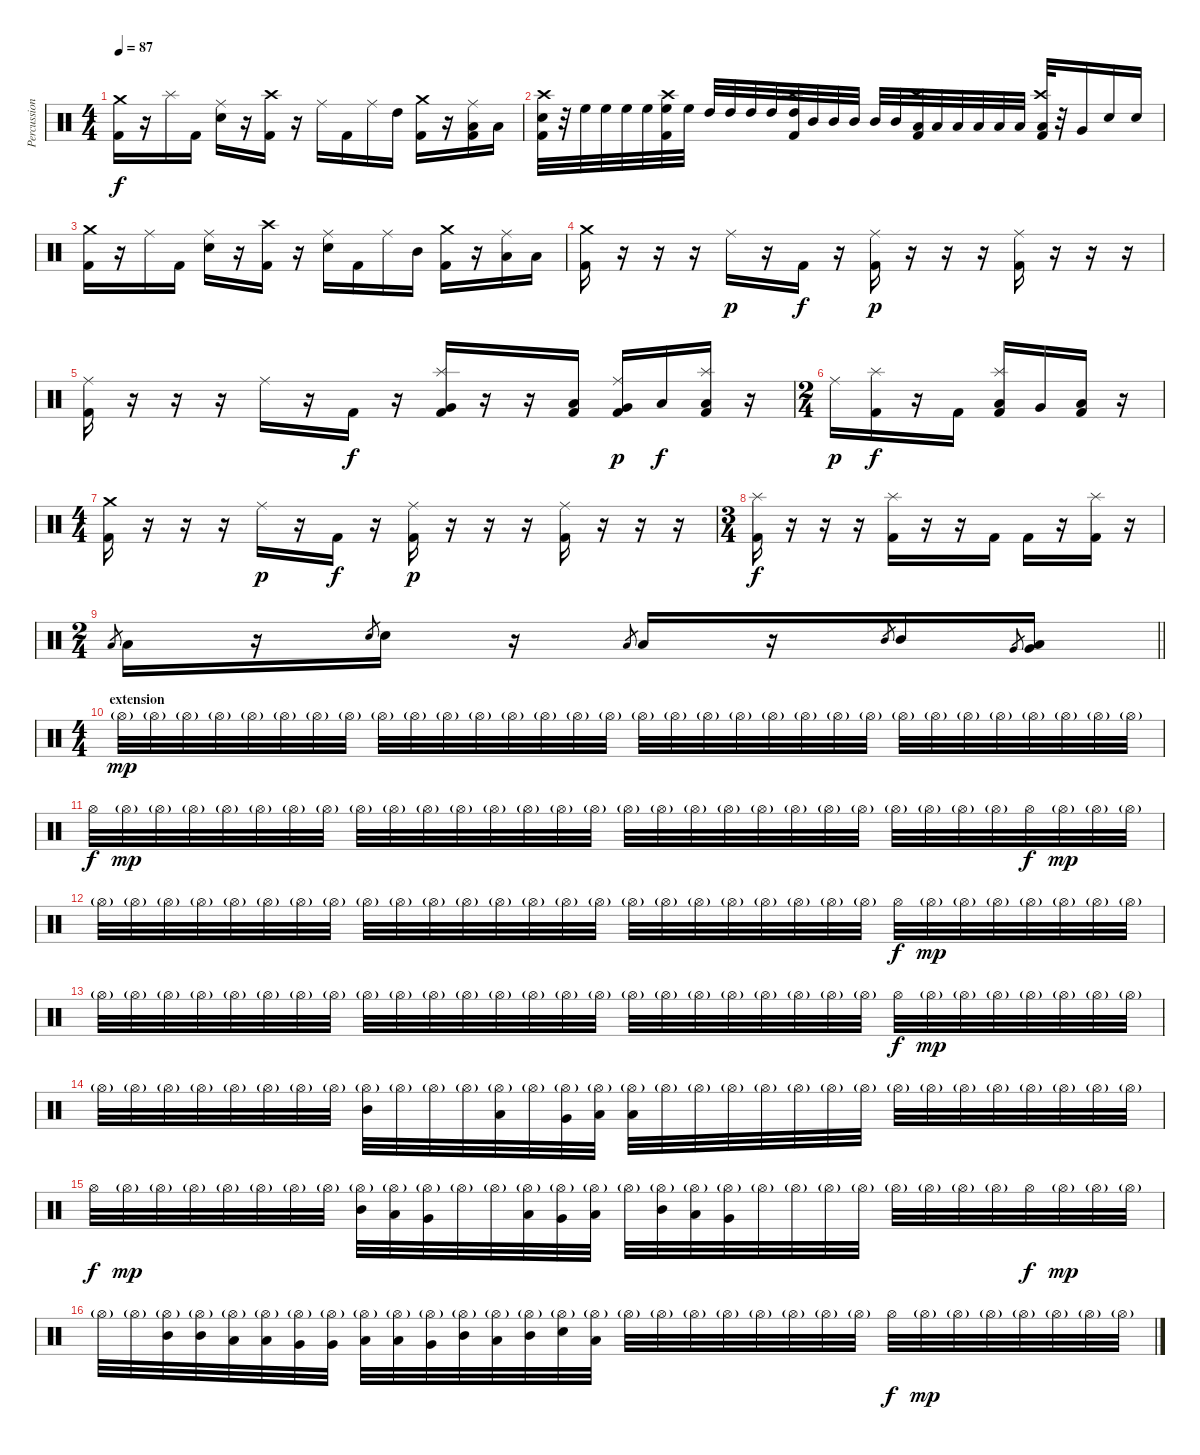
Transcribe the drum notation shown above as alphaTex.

\track ("Percussion" "Percussion") {instrument percussion}
\staff {score}
\articulation defaults
\ts (4 4)
\tempo 87
\clef neutral
\ks c
("Crash medium (hit)" "Kick (hit) 2").16{dy f} r.16 "Splash (hit)".16 "Kick (hit) 2".16 ("Ride (middle)" "Electric Snare (hit)").16 r.16 ("Crash high (hit)" "Kick (hit) 2").16 r.16 "Ride (middle)".16 "Kick (hit) 2".16 "Ride (middle)".16 "High Tom (hit)".16 ("Crash medium (hit)" "Kick (hit) 2").16 r.16 ("Ride (middle)" "Low Tom (hit)" "Kick (hit) 2").16 "Low Tom (hit)".16 |
("Crash high (hit)" "Electric Snare (hit)" "Kick (hit) 2").32 r.32 "High Floor Tom (hit)".32 "High Floor Tom (hit)".32 "High Floor Tom (hit)".32 "High Floor Tom (hit)".32 ("Crash high (hit)" "High Floor Tom (hit)" "Kick (hit) 2").32 "High Floor Tom (hit)".32 "High Tom (hit)".32 "High Tom (hit)".32 "High Tom (hit)".32 "High Tom (hit)".32 ("Crash high (hit)" "High Tom (hit)" "Kick (hit) 2").32 "Mid Tom (hit)".32 "Mid Tom (hit)".32 "Mid Tom (hit)".32 "Mid Tom (hit)".32 "Mid Tom (hit)".32 ("Crash high (hit)" "Low Tom (hit)" "Kick (hit) 2").32 "Low Tom (hit)".32 "Low Tom (hit)".32 "Low Tom (hit)".32 "Low Tom (hit)".32 "Low Tom (hit)".32 ("Crash high (hit)" "Low Tom (hit)" "Kick (hit) 2").32 r.32 "Very Low Tom (hit)".16 "Electric Snare (hit)".16 "Electric Snare (hit)".16 |
("Crash medium (hit)" "Kick (hit) 2").16 r.16 "Ride (middle)".16 "Kick (hit) 2".16 ("Ride (middle)" "Electric Snare (hit)").16 r.16 ("Crash high (hit)" "Kick (hit) 2").16 r.16 ("Ride (middle)" "Electric Snare (hit)").16 "Kick (hit) 2".16 "Ride (middle)".16 "Mid Tom (hit)".16 ("Crash medium (hit)" "Kick (hit) 2").16 r.16 ("Ride (middle)" "Low Tom (hit)").16 "Low Tom (hit)".16 |
("Crash medium (hit)" "Kick (hit) 2").16 r.16 r.16 r.16 "Ride (middle)".16{dy p} r.16 "Kick (hit) 2".16{dy f} r.16 ("Ride (middle)" "Kick (hit) 2").16{dy p} r.16 r.16 r.16 ("Ride (middle)" "Kick (hit) 2").16 r.16 r.16 r.16 |
("Ride (middle)" "Kick (hit) 2").16 r.16 r.16 r.16 "Ride (middle)".16 r.16 "Kick (hit) 2".16{dy f} r.16 ("Splash (hit)" "Very Low Tom (hit)" "Kick (hit) 2").16 r.16 r.16 ("Low Floor Tom (hit)" "Kick (hit) 2").16 ("Ride (middle)" "Very Low Tom (hit)" "Kick (hit) 2").16{dy p} "Low Floor Tom (hit)".16{dy f} ("Splash (hit)" "Low Tom (hit)" "Kick (hit) 2").16 r.16 |
\ts (2 4)
"Ride (middle)".16{dy p} ("Splash (hit)" "Kick (hit) 2").16{dy f} r.16 "Kick (hit) 2".16 ("Splash (hit)" "Low Tom (hit)" "Kick (hit) 2").16 "Very Low Tom (hit)".16 ("Low Floor Tom (hit)" "Kick (hit) 2").16 r.16 |
\ts (4 4)
("Crash medium (hit)" "Kick (hit) 2").16 r.16 r.16 r.16 "Ride (middle)".16{dy p} r.16 "Kick (hit) 2".16{dy f} r.16 ("Ride (middle)" "Kick (hit) 2").16{dy p} r.16 r.16 r.16 ("Ride (middle)" "Kick (hit) 2").16 r.16 r.16 r.16 |
\ts (3 4)
("Splash (hit)" "Kick (hit) 2").16{dy f} r.16 r.16 r.16 ("Splash (hit)" "Kick (hit) 2").16 r.16 r.16 "Kick (hit) 2".16 "Kick (hit) 2".16 r.16 ("Splash (hit)" "Kick (hit) 2").16 r.16 |
\ts (2 4)
\barLineRight lightlight "Low Floor Tom (hit)".8{gr} "Low Floor Tom (hit)".16
r.16 "Electric Snare (hit)".8{gr} "Electric Snare (hit)".16 r.16 "Low Floor Tom (hit)".8{gr} "Low Floor Tom (hit)".16 r.16 "Mid Tom (hit)".8{gr} "Mid Tom (hit)".16 "Very Low Tom (hit)".8{gr} ("Very Low Tom (hit)" "Low Floor Tom (hit)").16 |
\ts (4 4)
\section ("" "extension")
"Hi-Hat (open)"{g}.32{dy mp} "Hi-Hat (open)"{g}.32 "Hi-Hat (open)"{g}.32 "Hi-Hat (open)"{g}.32 "Hi-Hat (open)"{g}.32 "Hi-Hat (open)"{g}.32 "Hi-Hat (open)"{g}.32 "Hi-Hat (open)"{g}.32 "Hi-Hat (open)"{g}.32 "Hi-Hat (open)"{g}.32 "Hi-Hat (open)"{g}.32 "Hi-Hat (open)"{g}.32 "Hi-Hat (open)"{g}.32 "Hi-Hat (open)"{g}.32 "Hi-Hat (open)"{g}.32 "Hi-Hat (open)"{g}.32 "Hi-Hat (open)"{g}.32 "Hi-Hat (open)"{g}.32 "Hi-Hat (open)"{g}.32 "Hi-Hat (open)"{g}.32 "Hi-Hat (open)"{g}.32 "Hi-Hat (open)"{g}.32 "Hi-Hat (open)"{g}.32 "Hi-Hat (open)"{g}.32 "Hi-Hat (open)"{g}.32 "Hi-Hat (open)"{g}.32 "Hi-Hat (open)"{g}.32 "Hi-Hat (open)"{g}.32 "Hi-Hat (open)"{g}.32 "Hi-Hat (open)"{g}.32 "Hi-Hat (open)"{g}.32 "Hi-Hat (open)"{g}.32 |
"Hi-Hat (open)".32{dy f} "Hi-Hat (open)"{g}.32{dy mp} "Hi-Hat (open)"{g}.32 "Hi-Hat (open)"{g}.32 "Hi-Hat (open)"{g}.32 "Hi-Hat (open)"{g}.32 "Hi-Hat (open)"{g}.32 "Hi-Hat (open)"{g}.32 "Hi-Hat (open)"{g}.32 "Hi-Hat (open)"{g}.32 "Hi-Hat (open)"{g}.32 "Hi-Hat (open)"{g}.32 "Hi-Hat (open)"{g}.32 "Hi-Hat (open)"{g}.32 "Hi-Hat (open)"{g}.32 "Hi-Hat (open)"{g}.32 "Hi-Hat (open)"{g}.32 "Hi-Hat (open)"{g}.32 "Hi-Hat (open)"{g}.32 "Hi-Hat (open)"{g}.32 "Hi-Hat (open)"{g}.32 "Hi-Hat (open)"{g}.32 "Hi-Hat (open)"{g}.32 "Hi-Hat (open)"{g}.32 "Hi-Hat (open)"{g}.32 "Hi-Hat (open)"{g}.32 "Hi-Hat (open)"{g}.32 "Hi-Hat (open)"{g}.32 "Hi-Hat (open)".32{dy f} "Hi-Hat (open)"{g}.32{dy mp} "Hi-Hat (open)"{g}.32 "Hi-Hat (open)"{g}.32 |
"Hi-Hat (open)"{g}.32 "Hi-Hat (open)"{g}.32 "Hi-Hat (open)"{g}.32 "Hi-Hat (open)"{g}.32 "Hi-Hat (open)"{g}.32 "Hi-Hat (open)"{g}.32 "Hi-Hat (open)"{g}.32 "Hi-Hat (open)"{g}.32 "Hi-Hat (open)"{g}.32 "Hi-Hat (open)"{g}.32 "Hi-Hat (open)"{g}.32 "Hi-Hat (open)"{g}.32 "Hi-Hat (open)"{g}.32 "Hi-Hat (open)"{g}.32 "Hi-Hat (open)"{g}.32 "Hi-Hat (open)"{g}.32 "Hi-Hat (open)"{g}.32 "Hi-Hat (open)"{g}.32 "Hi-Hat (open)"{g}.32 "Hi-Hat (open)"{g}.32 "Hi-Hat (open)"{g}.32 "Hi-Hat (open)"{g}.32 "Hi-Hat (open)"{g}.32 "Hi-Hat (open)"{g}.32 "Hi-Hat (open)".32{dy f} "Hi-Hat (open)"{g}.32{dy mp} "Hi-Hat (open)"{g}.32 "Hi-Hat (open)"{g}.32 "Hi-Hat (open)"{g}.32 "Hi-Hat (open)"{g}.32 "Hi-Hat (open)"{g}.32 "Hi-Hat (open)"{g}.32 |
"Hi-Hat (open)"{g}.32 "Hi-Hat (open)"{g}.32 "Hi-Hat (open)"{g}.32 "Hi-Hat (open)"{g}.32 "Hi-Hat (open)"{g}.32 "Hi-Hat (open)"{g}.32 "Hi-Hat (open)"{g}.32 "Hi-Hat (open)"{g}.32 "Hi-Hat (open)"{g}.32 "Hi-Hat (open)"{g}.32 "Hi-Hat (open)"{g}.32 "Hi-Hat (open)"{g}.32 "Hi-Hat (open)"{g}.32 "Hi-Hat (open)"{g}.32 "Hi-Hat (open)"{g}.32 "Hi-Hat (open)"{g}.32 "Hi-Hat (open)"{g}.32 "Hi-Hat (open)"{g}.32 "Hi-Hat (open)"{g}.32 "Hi-Hat (open)"{g}.32 "Hi-Hat (open)"{g}.32 "Hi-Hat (open)"{g}.32 "Hi-Hat (open)"{g}.32 "Hi-Hat (open)"{g}.32 "Hi-Hat (open)".32{dy f} "Hi-Hat (open)"{g}.32{dy mp} "Hi-Hat (open)"{g}.32 "Hi-Hat (open)"{g}.32 "Hi-Hat (open)"{g}.32 "Hi-Hat (open)"{g}.32 "Hi-Hat (open)"{g}.32 "Hi-Hat (open)"{g}.32 |
"Hi-Hat (open)"{g}.32 "Hi-Hat (open)"{g}.32 "Hi-Hat (open)"{g}.32 "Hi-Hat (open)"{g}.32 "Hi-Hat (open)"{g}.32 "Hi-Hat (open)"{g}.32 "Hi-Hat (open)"{g}.32 "Hi-Hat (open)"{g}.32 ("Hi-Hat (open)"{g} "Mid Tom (hit)").32 "Hi-Hat (open)"{g}.32 "Hi-Hat (open)"{g}.32 "Hi-Hat (open)"{g}.32 ("Hi-Hat (open)"{g} "Low Tom (hit)").32 "Hi-Hat (open)"{g}.32 ("Hi-Hat (open)"{g} "Very Low Tom (hit)").32 ("Hi-Hat (open)"{g} "Low Floor Tom (hit)").32 ("Hi-Hat (open)"{g} "Low Tom (hit)").32 "Hi-Hat (open)"{g}.32 "Hi-Hat (open)"{g}.32 "Hi-Hat (open)"{g}.32 "Hi-Hat (open)"{g}.32 "Hi-Hat (open)"{g}.32 "Hi-Hat (open)"{g}.32 "Hi-Hat (open)"{g}.32 "Hi-Hat (open)"{g}.32 "Hi-Hat (open)"{g}.32 "Hi-Hat (open)"{g}.32 "Hi-Hat (open)"{g}.32 "Hi-Hat (open)"{g}.32 "Hi-Hat (open)"{g}.32 "Hi-Hat (open)"{g}.32 "Hi-Hat (open)"{g}.32 |
"Hi-Hat (open)".32{dy f} "Hi-Hat (open)"{g}.32{dy mp} "Hi-Hat (open)"{g}.32 "Hi-Hat (open)"{g}.32 "Hi-Hat (open)"{g}.32 "Hi-Hat (open)"{g}.32 "Hi-Hat (open)"{g}.32 "Hi-Hat (open)"{g}.32 ("Hi-Hat (open)"{g} "Mid Tom (hit)").32 ("Hi-Hat (open)"{g} "Low Tom (hit)").32 ("Hi-Hat (open)"{g} "Very Low Tom (hit)").32 "Hi-Hat (open)"{g}.32 "Hi-Hat (open)"{g}.32 ("Hi-Hat (open)"{g} "Low Tom (hit)").32 ("Hi-Hat (open)"{g} "Very Low Tom (hit)").32 ("Hi-Hat (open)"{g} "Low Floor Tom (hit)").32 "Hi-Hat (open)"{g}.32 ("Hi-Hat (open)"{g} "Mid Tom (hit)").32 ("Hi-Hat (open)"{g} "Low Tom (hit)").32 ("Hi-Hat (open)"{g} "Very Low Tom (hit)").32 "Hi-Hat (open)"{g}.32 "Hi-Hat (open)"{g}.32 "Hi-Hat (open)"{g}.32 "Hi-Hat (open)"{g}.32 "Hi-Hat (open)"{g}.32 "Hi-Hat (open)"{g}.32 "Hi-Hat (open)"{g}.32 "Hi-Hat (open)"{g}.32 "Hi-Hat (open)".32{dy f} "Hi-Hat (open)"{g}.32{dy mp} "Hi-Hat (open)"{g}.32 "Hi-Hat (open)"{g}.32 |
"Hi-Hat (open)"{g}.32 "Hi-Hat (open)"{g}.32 ("Hi-Hat (open)"{g} "Mid Tom (hit)").32 ("Hi-Hat (open)"{g} "Mid Tom (hit)").32 ("Hi-Hat (open)"{g} "Low Tom (hit)").32 ("Hi-Hat (open)"{g} "Low Tom (hit)").32 ("Hi-Hat (open)"{g} "Very Low Tom (hit)").32 ("Hi-Hat (open)"{g} "Very Low Tom (hit)").32 ("Hi-Hat (open)"{g} "Low Floor Tom (hit)").32 ("Hi-Hat (open)"{g} "Low Floor Tom (hit)").32 ("Hi-Hat (open)"{g} "Very Low Tom (hit)").32 ("Hi-Hat (open)"{g} "Mid Tom (hit)").32 ("Hi-Hat (open)"{g} "Low Tom (hit)").32 ("Hi-Hat (open)"{g} "Mid Tom (hit)").32 ("Hi-Hat (open)"{g} "Electric Snare (hit)").32 ("Hi-Hat (open)"{g} "Low Floor Tom (hit)").32 "Hi-Hat (open)"{g}.32 "Hi-Hat (open)"{g}.32 "Hi-Hat (open)"{g}.32 "Hi-Hat (open)"{g}.32 "Hi-Hat (open)"{g}.32 "Hi-Hat (open)"{g}.32 "Hi-Hat (open)"{g}.32 "Hi-Hat (open)"{g}.32 "Hi-Hat (open)".32{dy f} "Hi-Hat (open)"{g}.32{dy mp} "Hi-Hat (open)"{g}.32 "Hi-Hat (open)"{g}.32 "Hi-Hat (open)"{g}.32 "Hi-Hat (open)"{g}.32 "Hi-Hat (open)"{g}.32 "Hi-Hat (open)"{g}.32
